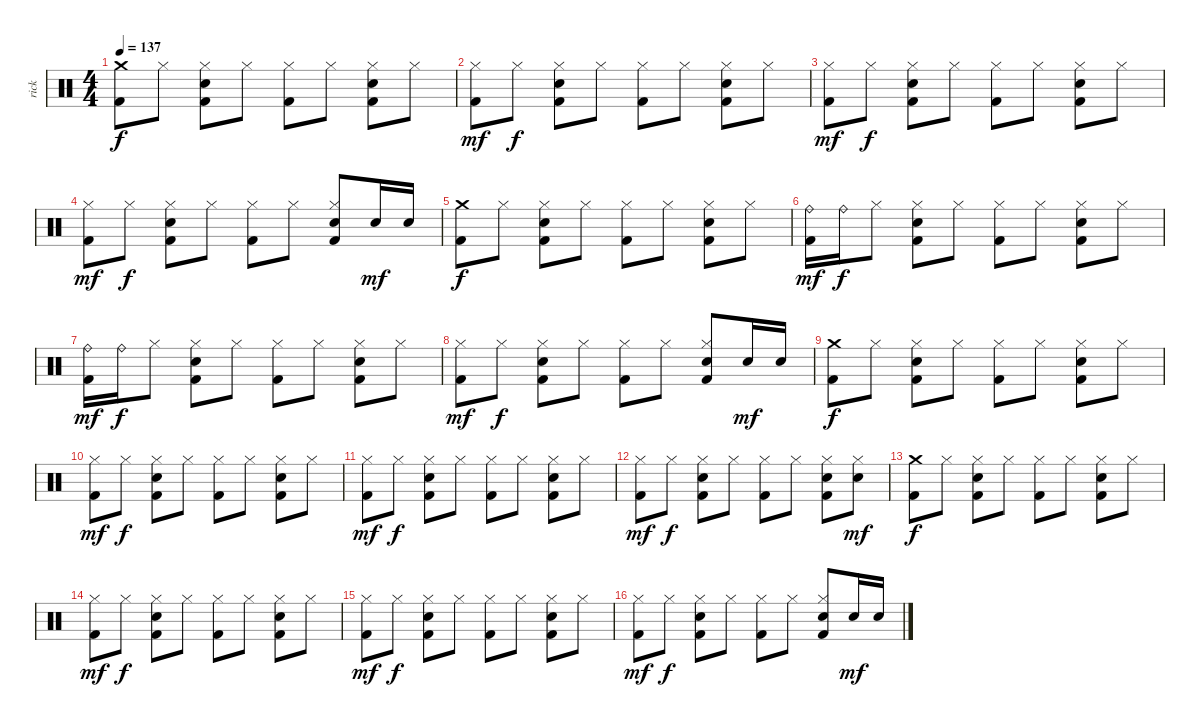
\track ("rick" "rick") {instrument percussion}
\staff {score}
\articulation defaults
\ts (4 4)
\tempo 137
\clef neutral
\ks c
("Crash medium (hit)" "Kick (hit) 2").8{dy f} "Hi-Hat (closed)".8 ("Hi-Hat (closed)" "Electric Snare (hit)" "Kick (hit) 2").8 "Hi-Hat (closed)".8 ("Hi-Hat (closed)" "Kick (hit) 2").8 "Hi-Hat (closed)".8 ("Hi-Hat (closed)" "Electric Snare (hit)" "Kick (hit) 2").8 "Hi-Hat (closed)".8 |
("Hi-Hat (closed)" "Kick (hit) 2").8{dy mf} "Hi-Hat (closed)".8{dy f} ("Hi-Hat (closed)" "Electric Snare (hit)" "Kick (hit) 2").8 "Hi-Hat (closed)".8 ("Hi-Hat (closed)" "Kick (hit) 2").8 "Hi-Hat (closed)".8 ("Hi-Hat (closed)" "Electric Snare (hit)" "Kick (hit) 2").8 "Hi-Hat (closed)".8 |
("Hi-Hat (closed)" "Kick (hit) 2").8{dy mf} "Hi-Hat (closed)".8{dy f} ("Hi-Hat (closed)" "Electric Snare (hit)" "Kick (hit) 2").8 "Hi-Hat (closed)".8 ("Hi-Hat (closed)" "Kick (hit) 2").8 "Hi-Hat (closed)".8 ("Hi-Hat (closed)" "Electric Snare (hit)" "Kick (hit) 2").8 "Hi-Hat (closed)".8 |
("Hi-Hat (closed)" "Kick (hit) 2").8{dy mf} "Hi-Hat (closed)".8{dy f} ("Hi-Hat (closed)" "Electric Snare (hit)" "Kick (hit) 2").8 "Hi-Hat (closed)".8 ("Hi-Hat (closed)" "Kick (hit) 2").8 "Hi-Hat (closed)".8 ("Hi-Hat (closed)" "Electric Snare (hit)" "Kick (hit) 2").8 "Electric Snare (hit)".16{dy mf} "Electric Snare (hit)".16 |
("Crash medium (hit)" "Kick (hit) 2").8{dy f} "Hi-Hat (closed)".8 ("Hi-Hat (closed)" "Electric Snare (hit)" "Kick (hit) 2").8 "Hi-Hat (closed)".8 ("Hi-Hat (closed)" "Kick (hit) 2").8 "Hi-Hat (closed)".8 ("Hi-Hat (closed)" "Electric Snare (hit)" "Kick (hit) 2").8 "Hi-Hat (closed)".8 |
("Ride (bell)" "Kick (hit) 2").16{dy mf} "Ride (bell)".16{dy f} "Hi-Hat (closed)".8 ("Hi-Hat (closed)" "Electric Snare (hit)" "Kick (hit) 2").8 "Hi-Hat (closed)".8 ("Hi-Hat (closed)" "Kick (hit) 2").8 "Hi-Hat (closed)".8 ("Hi-Hat (closed)" "Electric Snare (hit)" "Kick (hit) 2").8 "Hi-Hat (closed)".8 |
("Ride (bell)" "Kick (hit) 2").16{dy mf} "Ride (bell)".16{dy f} "Hi-Hat (closed)".8 ("Hi-Hat (closed)" "Electric Snare (hit)" "Kick (hit) 2").8 "Hi-Hat (closed)".8 ("Hi-Hat (closed)" "Kick (hit) 2").8 "Hi-Hat (closed)".8 ("Hi-Hat (closed)" "Electric Snare (hit)" "Kick (hit) 2").8 "Hi-Hat (closed)".8 |
("Hi-Hat (closed)" "Kick (hit) 2").8{dy mf} "Hi-Hat (closed)".8{dy f} ("Hi-Hat (closed)" "Electric Snare (hit)" "Kick (hit) 2").8 "Hi-Hat (closed)".8 ("Hi-Hat (closed)" "Kick (hit) 2").8 "Hi-Hat (closed)".8 ("Hi-Hat (closed)" "Electric Snare (hit)" "Kick (hit) 2").8 "Electric Snare (hit)".16{dy mf} "Electric Snare (hit)".16 |
("Crash medium (hit)" "Kick (hit) 2").8{dy f} "Hi-Hat (closed)".8 ("Hi-Hat (closed)" "Electric Snare (hit)" "Kick (hit) 2").8 "Hi-Hat (closed)".8 ("Hi-Hat (closed)" "Kick (hit) 2").8 "Hi-Hat (closed)".8 ("Hi-Hat (closed)" "Electric Snare (hit)" "Kick (hit) 2").8 "Hi-Hat (closed)".8 |
("Hi-Hat (closed)" "Kick (hit) 2").8{dy mf} "Hi-Hat (closed)".8{dy f} ("Hi-Hat (closed)" "Electric Snare (hit)" "Kick (hit) 2").8 "Hi-Hat (closed)".8 ("Hi-Hat (closed)" "Kick (hit) 2").8 "Hi-Hat (closed)".8 ("Hi-Hat (closed)" "Electric Snare (hit)" "Kick (hit) 2").8 "Hi-Hat (closed)".8 |
("Hi-Hat (closed)" "Kick (hit) 2").8{dy mf} "Hi-Hat (closed)".8{dy f} ("Hi-Hat (closed)" "Electric Snare (hit)" "Kick (hit) 2").8 "Hi-Hat (closed)".8 ("Hi-Hat (closed)" "Kick (hit) 2").8 "Hi-Hat (closed)".8 ("Hi-Hat (closed)" "Electric Snare (hit)" "Kick (hit) 2").8 "Hi-Hat (closed)".8 |
("Hi-Hat (closed)" "Kick (hit) 2").8{dy mf} "Hi-Hat (closed)".8{dy f} ("Hi-Hat (closed)" "Electric Snare (hit)" "Kick (hit) 2").8 "Hi-Hat (closed)".8 ("Hi-Hat (closed)" "Kick (hit) 2").8 "Hi-Hat (closed)".8 ("Hi-Hat (closed)" "Electric Snare (hit)" "Kick (hit) 2").8 ("Hi-Hat (closed)" "Electric Snare (hit)").8{dy mf} |
("Crash medium (hit)" "Kick (hit) 2").8{dy f} "Hi-Hat (closed)".8 ("Hi-Hat (closed)" "Electric Snare (hit)" "Kick (hit) 2").8 "Hi-Hat (closed)".8 ("Hi-Hat (closed)" "Kick (hit) 2").8 "Hi-Hat (closed)".8 ("Hi-Hat (closed)" "Electric Snare (hit)" "Kick (hit) 2").8 "Hi-Hat (closed)".8 |
("Hi-Hat (closed)" "Kick (hit) 2").8{dy mf} "Hi-Hat (closed)".8{dy f} ("Hi-Hat (closed)" "Electric Snare (hit)" "Kick (hit) 2").8 "Hi-Hat (closed)".8 ("Hi-Hat (closed)" "Kick (hit) 2").8 "Hi-Hat (closed)".8 ("Hi-Hat (closed)" "Electric Snare (hit)" "Kick (hit) 2").8 "Hi-Hat (closed)".8 |
("Hi-Hat (closed)" "Kick (hit) 2").8{dy mf} "Hi-Hat (closed)".8{dy f} ("Hi-Hat (closed)" "Electric Snare (hit)" "Kick (hit) 2").8 "Hi-Hat (closed)".8 ("Hi-Hat (closed)" "Kick (hit) 2").8 "Hi-Hat (closed)".8 ("Hi-Hat (closed)" "Electric Snare (hit)" "Kick (hit) 2").8 "Hi-Hat (closed)".8 |
("Hi-Hat (closed)" "Kick (hit) 2").8{dy mf} "Hi-Hat (closed)".8{dy f} ("Hi-Hat (closed)" "Electric Snare (hit)" "Kick (hit) 2").8 "Hi-Hat (closed)".8 ("Hi-Hat (closed)" "Kick (hit) 2").8 "Hi-Hat (closed)".8 ("Hi-Hat (closed)" "Electric Snare (hit)" "Kick (hit) 2").8 "Electric Snare (hit)".16{dy mf} "Electric Snare (hit)".16
